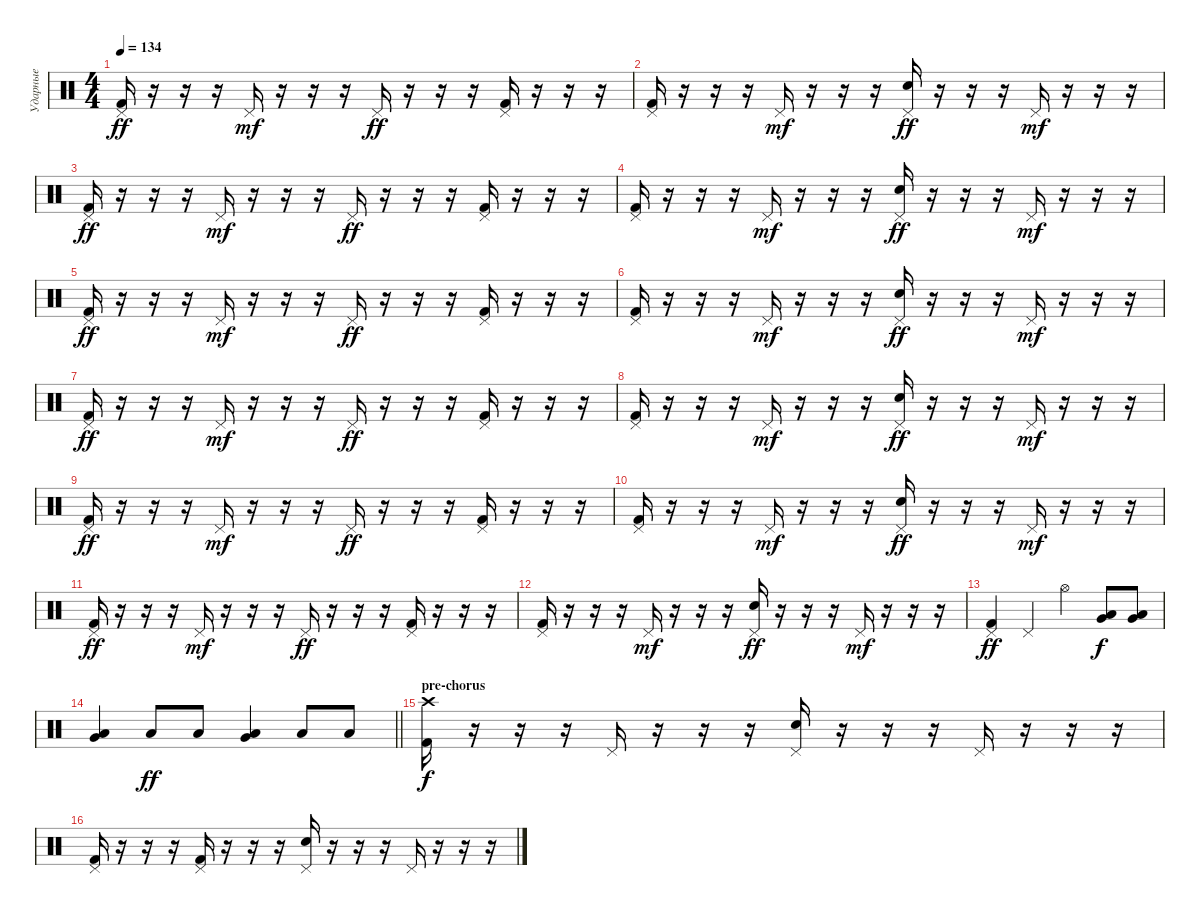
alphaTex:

\track ("Ударные" "Ударные") {instrument percussion}
\staff {score}
\articulation defaults
\ts (4 4)
\tempo 134
\clef neutral
\ks c
("Pedal Hi-Hat (hit)" "Kick (hit) 2").16{dy ff} r.16 r.16 r.16 "Pedal Hi-Hat (hit)".16{dy mf} r.16 r.16 r.16 "Pedal Hi-Hat (hit)".16{dy ff} r.16 r.16 r.16 ("Pedal Hi-Hat (hit)" "Kick (hit) 2").16 r.16 r.16 r.16 |
("Pedal Hi-Hat (hit)" "Kick (hit) 2").16 r.16 r.16 r.16 "Pedal Hi-Hat (hit)".16{dy mf} r.16 r.16 r.16 ("Pedal Hi-Hat (hit)" "Snare (hit) 2").16{dy ff} r.16 r.16 r.16 "Pedal Hi-Hat (hit)".16{dy mf} r.16 r.16 r.16 |
("Pedal Hi-Hat (hit)" "Kick (hit) 2").16{dy ff} r.16 r.16 r.16 "Pedal Hi-Hat (hit)".16{dy mf} r.16 r.16 r.16 "Pedal Hi-Hat (hit)".16{dy ff} r.16 r.16 r.16 ("Pedal Hi-Hat (hit)" "Kick (hit) 2").16 r.16 r.16 r.16 |
("Pedal Hi-Hat (hit)" "Kick (hit) 2").16 r.16 r.16 r.16 "Pedal Hi-Hat (hit)".16{dy mf} r.16 r.16 r.16 ("Pedal Hi-Hat (hit)" "Snare (hit) 2").16{dy ff} r.16 r.16 r.16 "Pedal Hi-Hat (hit)".16{dy mf} r.16 r.16 r.16 |
("Pedal Hi-Hat (hit)" "Kick (hit) 2").16{dy ff} r.16 r.16 r.16 "Pedal Hi-Hat (hit)".16{dy mf} r.16 r.16 r.16 "Pedal Hi-Hat (hit)".16{dy ff} r.16 r.16 r.16 ("Pedal Hi-Hat (hit)" "Kick (hit) 2").16 r.16 r.16 r.16 |
("Pedal Hi-Hat (hit)" "Kick (hit) 2").16 r.16 r.16 r.16 "Pedal Hi-Hat (hit)".16{dy mf} r.16 r.16 r.16 ("Pedal Hi-Hat (hit)" "Snare (hit) 2").16{dy ff} r.16 r.16 r.16 "Pedal Hi-Hat (hit)".16{dy mf} r.16 r.16 r.16 |
("Pedal Hi-Hat (hit)" "Kick (hit) 2").16{dy ff} r.16 r.16 r.16 "Pedal Hi-Hat (hit)".16{dy mf} r.16 r.16 r.16 "Pedal Hi-Hat (hit)".16{dy ff} r.16 r.16 r.16 ("Pedal Hi-Hat (hit)" "Kick (hit) 2").16 r.16 r.16 r.16 |
("Pedal Hi-Hat (hit)" "Kick (hit) 2").16 r.16 r.16 r.16 "Pedal Hi-Hat (hit)".16{dy mf} r.16 r.16 r.16 ("Pedal Hi-Hat (hit)" "Snare (hit) 2").16{dy ff} r.16 r.16 r.16 "Pedal Hi-Hat (hit)".16{dy mf} r.16 r.16 r.16 |
("Pedal Hi-Hat (hit)" "Kick (hit) 2").16{dy ff} r.16 r.16 r.16 "Pedal Hi-Hat (hit)".16{dy mf} r.16 r.16 r.16 "Pedal Hi-Hat (hit)".16{dy ff} r.16 r.16 r.16 ("Pedal Hi-Hat (hit)" "Kick (hit) 2").16 r.16 r.16 r.16 |
("Pedal Hi-Hat (hit)" "Kick (hit) 2").16 r.16 r.16 r.16 "Pedal Hi-Hat (hit)".16{dy mf} r.16 r.16 r.16 ("Pedal Hi-Hat (hit)" "Snare (hit) 2").16{dy ff} r.16 r.16 r.16 "Pedal Hi-Hat (hit)".16{dy mf} r.16 r.16 r.16 |
("Pedal Hi-Hat (hit)" "Kick (hit) 2").16{dy ff} r.16 r.16 r.16 "Pedal Hi-Hat (hit)".16{dy mf} r.16 r.16 r.16 "Pedal Hi-Hat (hit)".16{dy ff} r.16 r.16 r.16 ("Pedal Hi-Hat (hit)" "Kick (hit) 2").16 r.16 r.16 r.16 |
("Pedal Hi-Hat (hit)" "Kick (hit) 2").16 r.16 r.16 r.16 "Pedal Hi-Hat (hit)".16{dy mf} r.16 r.16 r.16 ("Pedal Hi-Hat (hit)" "Snare (hit) 2").16{dy ff} r.16 r.16 r.16 "Pedal Hi-Hat (hit)".16{dy mf} r.16 r.16 r.16 |
("Pedal Hi-Hat (hit)" "Kick (hit) 2").4{dy ff} "Pedal Hi-Hat (hit)".4 "Hi-Hat (open)".4 ("Very Low Tom (hit)" "Low Tom (hit)").8{dy f} ("Very Low Tom (hit)" "Low Tom (hit)").8 |
\barLineRight lightlight
("Very Low Tom (hit)" "Low Tom (hit)").4 "Low Tom (hit)".8{dy ff} "Low Tom (hit)".8 ("Very Low Tom (hit)" "Low Tom (hit)").4 "Low Tom (hit)".8 "Low Tom (hit)".8 |
\section ("" "pre-chorus")
("Crash high (hit)" "Kick (hit) 2").16{dy f} r.16 r.16 r.16 "Pedal Hi-Hat (hit)".16 r.16 r.16 r.16 ("Pedal Hi-Hat (hit)" "Snare (hit) 2").16 r.16 r.16 r.16 "Pedal Hi-Hat (hit)".16 r.16 r.16 r.16 |
("Pedal Hi-Hat (hit)" "Kick (hit) 2").16 r.16 r.16 r.16 ("Pedal Hi-Hat (hit)" "Kick (hit) 2").16 r.16 r.16 r.16 ("Pedal Hi-Hat (hit)" "Snare (hit) 2").16 r.16 r.16 r.16 "Pedal Hi-Hat (hit)".16 r.16 r.16 r.16
